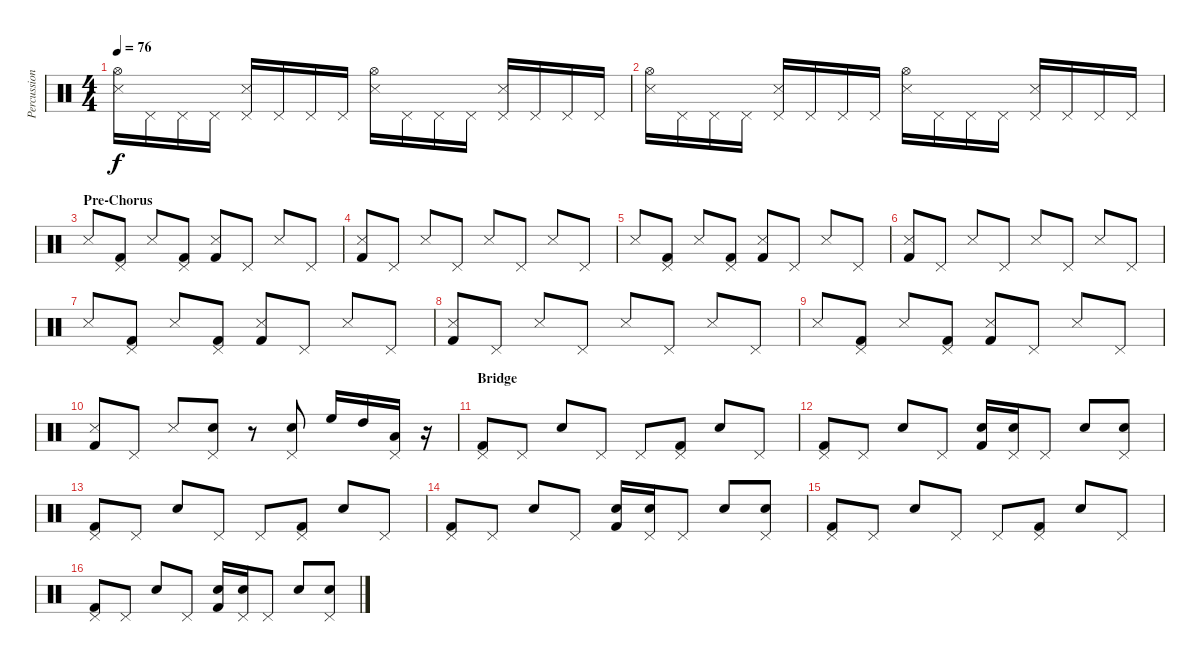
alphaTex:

\track ("Percussions" "Percussion") {instrument percussion}
\staff {score}
\articulation defaults
\ts (4 4)
\tempo 76
\clef neutral
\ks c
("Snare (side stick) 3" "Hi-Hat (open)").16{dy f} "Pedal Hi-Hat (hit)".16 "Pedal Hi-Hat (hit)".16 "Pedal Hi-Hat (hit)".16 ("Snare (side stick) 3" "Pedal Hi-Hat (hit)").16 "Pedal Hi-Hat (hit)".16 "Pedal Hi-Hat (hit)".16 "Pedal Hi-Hat (hit)".16 ("Snare (side stick) 3" "Hi-Hat (open)").16 "Pedal Hi-Hat (hit)".16 "Pedal Hi-Hat (hit)".16 "Pedal Hi-Hat (hit)".16 ("Snare (side stick) 3" "Pedal Hi-Hat (hit)").16 "Pedal Hi-Hat (hit)".16 "Pedal Hi-Hat (hit)".16 "Pedal Hi-Hat (hit)".16 |
("Snare (side stick) 3" "Hi-Hat (open)").16 "Pedal Hi-Hat (hit)".16 "Pedal Hi-Hat (hit)".16 "Pedal Hi-Hat (hit)".16 ("Snare (side stick) 3" "Pedal Hi-Hat (hit)").16 "Pedal Hi-Hat (hit)".16 "Pedal Hi-Hat (hit)".16 "Pedal Hi-Hat (hit)".16 ("Snare (side stick) 3" "Hi-Hat (open)").16 "Pedal Hi-Hat (hit)".16 "Pedal Hi-Hat (hit)".16 "Pedal Hi-Hat (hit)".16 ("Snare (side stick) 3" "Pedal Hi-Hat (hit)").16 "Pedal Hi-Hat (hit)".16 "Pedal Hi-Hat (hit)".16 "Pedal Hi-Hat (hit)".16 |
\section ("" "Pre-Chorus")
"Snare (side stick) 3".8 ("Pedal Hi-Hat (hit)" "Kick (hit) 2").8 "Snare (side stick) 3".8 ("Pedal Hi-Hat (hit)" "Kick (hit) 2").8 ("Snare (side stick) 3" "Kick (hit) 2").8 "Pedal Hi-Hat (hit)".8 "Snare (side stick) 3".8 "Pedal Hi-Hat (hit)".8 |
("Snare (side stick) 3" "Kick (hit) 2").8 "Pedal Hi-Hat (hit)".8 "Snare (side stick) 3".8 "Pedal Hi-Hat (hit)".8 "Snare (side stick) 3".8 "Pedal Hi-Hat (hit)".8 "Snare (side stick) 3".8 "Pedal Hi-Hat (hit)".8 |
"Snare (side stick) 3".8 ("Pedal Hi-Hat (hit)" "Kick (hit) 2").8 "Snare (side stick) 3".8 ("Pedal Hi-Hat (hit)" "Kick (hit) 2").8 ("Snare (side stick) 3" "Kick (hit) 2").8 "Pedal Hi-Hat (hit)".8 "Snare (side stick) 3".8 "Pedal Hi-Hat (hit)".8 |
("Snare (side stick) 3" "Kick (hit) 2").8 "Pedal Hi-Hat (hit)".8 "Snare (side stick) 3".8 "Pedal Hi-Hat (hit)".8 "Snare (side stick) 3".8 "Pedal Hi-Hat (hit)".8 "Snare (side stick) 3".8 "Pedal Hi-Hat (hit)".8 |
"Snare (side stick) 3".8 ("Pedal Hi-Hat (hit)" "Kick (hit) 2").8 "Snare (side stick) 3".8 ("Pedal Hi-Hat (hit)" "Kick (hit) 2").8 ("Snare (side stick) 3" "Kick (hit) 2").8 "Pedal Hi-Hat (hit)".8 "Snare (side stick) 3".8 "Pedal Hi-Hat (hit)".8 |
("Snare (side stick) 3" "Kick (hit) 2").8 "Pedal Hi-Hat (hit)".8 "Snare (side stick) 3".8 "Pedal Hi-Hat (hit)".8 "Snare (side stick) 3".8 "Pedal Hi-Hat (hit)".8 "Snare (side stick) 3".8 "Pedal Hi-Hat (hit)".8 |
"Snare (side stick) 3".8 ("Pedal Hi-Hat (hit)" "Kick (hit) 2").8 "Snare (side stick) 3".8 ("Pedal Hi-Hat (hit)" "Kick (hit) 2").8 ("Snare (side stick) 3" "Kick (hit) 2").8 "Pedal Hi-Hat (hit)".8 "Snare (side stick) 3".8 "Pedal Hi-Hat (hit)".8 |
("Snare (side stick) 3" "Kick (hit) 2").8 "Pedal Hi-Hat (hit)".8 "Snare (side stick) 3".8 ("Pedal Hi-Hat (hit)" "Snare (hit) 2").8 r.8 ("Pedal Hi-Hat (hit)" "Snare (hit) 2").8 "High Floor Tom (hit)".16 "High Tom (hit)".16 ("Pedal Hi-Hat (hit)" "Low Tom (hit)").16 r.16 |
\section ("" "Bridge")
("Pedal Hi-Hat (hit)" "Kick (hit) 2").8 "Pedal Hi-Hat (hit)".8 "Snare (hit) 2".8 "Pedal Hi-Hat (hit)".8 "Pedal Hi-Hat (hit)".8 ("Pedal Hi-Hat (hit)" "Kick (hit) 2").8 "Snare (hit) 2".8 "Pedal Hi-Hat (hit)".8 |
("Pedal Hi-Hat (hit)" "Kick (hit) 2").8 "Pedal Hi-Hat (hit)".8 "Snare (hit) 2".8 "Pedal Hi-Hat (hit)".8 ("Snare (hit) 2" "Kick (hit) 2").16 ("Snare (hit) 2" "Pedal Hi-Hat (hit)").16 "Pedal Hi-Hat (hit)".8 "Snare (hit) 2".8 ("Snare (hit) 2" "Pedal Hi-Hat (hit)").8 |
("Pedal Hi-Hat (hit)" "Kick (hit) 2").8 "Pedal Hi-Hat (hit)".8 "Snare (hit) 2".8 "Pedal Hi-Hat (hit)".8 "Pedal Hi-Hat (hit)".8 ("Pedal Hi-Hat (hit)" "Kick (hit) 2").8 "Snare (hit) 2".8 "Pedal Hi-Hat (hit)".8 |
("Pedal Hi-Hat (hit)" "Kick (hit) 2").8 "Pedal Hi-Hat (hit)".8 "Snare (hit) 2".8 "Pedal Hi-Hat (hit)".8 ("Snare (hit) 2" "Kick (hit) 2").16 ("Snare (hit) 2" "Pedal Hi-Hat (hit)").16 "Pedal Hi-Hat (hit)".8 "Snare (hit) 2".8 ("Snare (hit) 2" "Pedal Hi-Hat (hit)").8 |
("Pedal Hi-Hat (hit)" "Kick (hit) 2").8 "Pedal Hi-Hat (hit)".8 "Snare (hit) 2".8 "Pedal Hi-Hat (hit)".8 "Pedal Hi-Hat (hit)".8 ("Pedal Hi-Hat (hit)" "Kick (hit) 2").8 "Snare (hit) 2".8 "Pedal Hi-Hat (hit)".8 |
("Pedal Hi-Hat (hit)" "Kick (hit) 2").8 "Pedal Hi-Hat (hit)".8 "Snare (hit) 2".8 "Pedal Hi-Hat (hit)".8 ("Snare (hit) 2" "Kick (hit) 2").16 ("Snare (hit) 2" "Pedal Hi-Hat (hit)").16 "Pedal Hi-Hat (hit)".8 "Snare (hit) 2".8 ("Snare (hit) 2" "Pedal Hi-Hat (hit)").8
